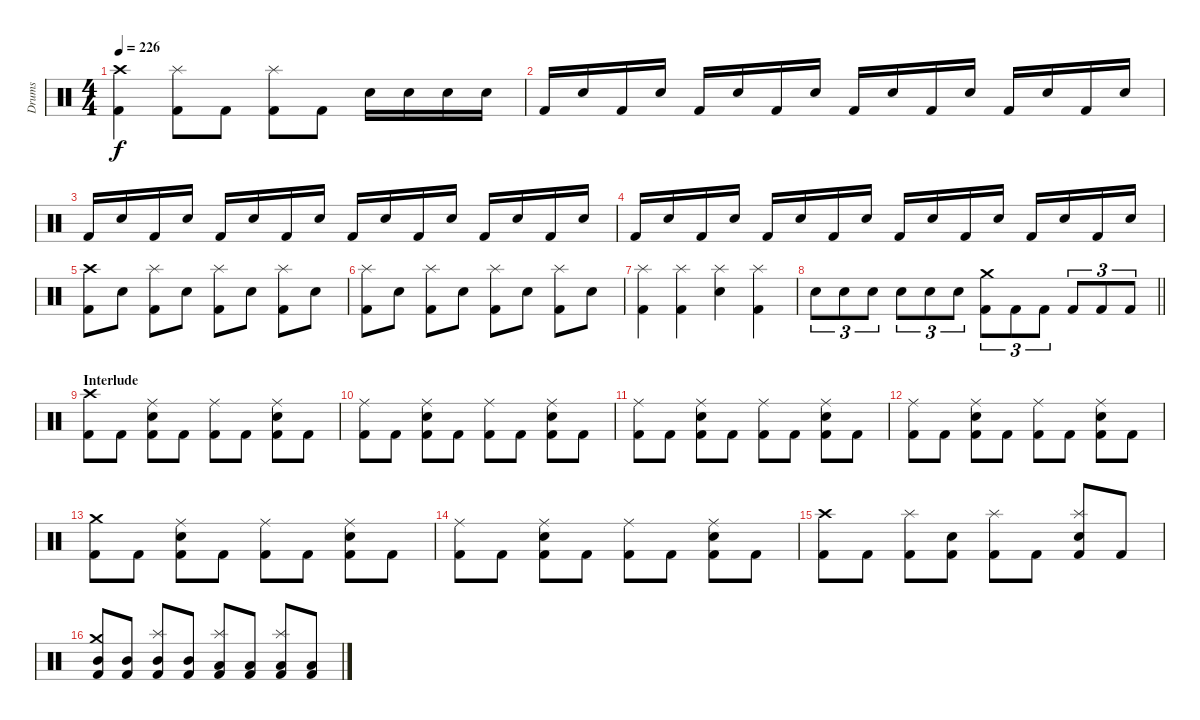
\track ("Drums" "Drums") {instrument percussion}
\staff {score}
\articulation defaults
\ts (4 4)
\tempo 226
\clef neutral
\ks c
("Crash high (hit)" "Kick (hit) 2").4{dy f} ("Splash (hit)" "Kick (hit) 2").8 "Kick (hit) 2".8 ("Splash (hit)" "Kick (hit) 2").8 "Kick (hit) 2".8 "Snare (hit) 2".16 "Snare (hit) 2".16 "Snare (hit) 2".16 "Snare (hit) 2".16 |
"Kick (hit) 2".16 "Snare (hit) 2".16 "Kick (hit) 2".16 "Snare (hit) 2".16 "Kick (hit) 2".16 "Snare (hit) 2".16 "Kick (hit) 2".16 "Snare (hit) 2".16 "Kick (hit) 2".16 "Snare (hit) 2".16 "Kick (hit) 2".16 "Snare (hit) 2".16 "Kick (hit) 2".16 "Snare (hit) 2".16 "Kick (hit) 2".16 "Snare (hit) 2".16 |
"Kick (hit) 2".16 "Snare (hit) 2".16 "Kick (hit) 2".16 "Snare (hit) 2".16 "Kick (hit) 2".16 "Snare (hit) 2".16 "Kick (hit) 2".16 "Snare (hit) 2".16 "Kick (hit) 2".16 "Snare (hit) 2".16 "Kick (hit) 2".16 "Snare (hit) 2".16 "Kick (hit) 2".16 "Snare (hit) 2".16 "Kick (hit) 2".16 "Snare (hit) 2".16 |
"Kick (hit) 2".16 "Snare (hit) 2".16 "Kick (hit) 2".16 "Snare (hit) 2".16 "Kick (hit) 2".16 "Snare (hit) 2".16 "Kick (hit) 2".16 "Snare (hit) 2".16 "Kick (hit) 2".16 "Snare (hit) 2".16 "Kick (hit) 2".16 "Snare (hit) 2".16 "Kick (hit) 2".16 "Snare (hit) 2".16 "Kick (hit) 2".16 "Snare (hit) 2".16 |
("Crash high (hit)" "Kick (hit) 2").8 "Snare (hit) 2".8 ("Splash (hit)" "Kick (hit) 2").8 "Snare (hit) 2".8 ("Splash (hit)" "Kick (hit) 2").8 "Snare (hit) 2".8 ("Splash (hit)" "Kick (hit) 2").8 "Snare (hit) 2".8 |
("Splash (hit)" "Kick (hit) 2").8 "Snare (hit) 2".8 ("Splash (hit)" "Kick (hit) 2").8 "Snare (hit) 2".8 ("Splash (hit)" "Kick (hit) 2").8 "Snare (hit) 2".8 ("Splash (hit)" "Kick (hit) 2").8 "Snare (hit) 2".8 |
("Splash (hit)" "Kick (hit) 2").4 ("Splash (hit)" "Kick (hit) 2").4 ("Splash (hit)" "Snare (hit) 2").4 ("Splash (hit)" "Kick (hit) 2").4 |
\barLineRight lightlight "Snare (hit) 2".8{tu (3 2)} "Snare (hit) 2".8{tu (3 2)} "Snare (hit) 2".8{tu (3 2)} "Snare (hit) 2".8{tu (3 2)} "Snare (hit) 2".8{tu (3 2)} "Snare (hit) 2".8{tu (3 2)}
("Crash medium (hit)" "Kick (hit) 2").8{tu (3 2)} "Kick (hit) 2".8{tu (3 2)} "Kick (hit) 2".8{tu (3 2)} "Kick (hit) 2".8{tu (3 2)} "Kick (hit) 2".8{tu (3 2)} "Kick (hit) 2".8{tu (3 2)} |
\section ("" "Interlude")
("Crash high (hit)" "Kick (hit) 2").8 "Kick (hit) 2".8 ("Ride (middle)" "Snare (hit) 2" "Kick (hit) 2").8 "Kick (hit) 2".8 ("Ride (middle)" "Kick (hit) 2").8 "Kick (hit) 2".8 ("Ride (middle)" "Snare (hit) 2" "Kick (hit) 2").8 "Kick (hit) 2".8 |
("Ride (middle)" "Kick (hit) 2").8 "Kick (hit) 2".8 ("Ride (middle)" "Snare (hit) 2" "Kick (hit) 2").8 "Kick (hit) 2".8 ("Ride (middle)" "Kick (hit) 2").8 "Kick (hit) 2".8 ("Ride (middle)" "Snare (hit) 2" "Kick (hit) 2").8 "Kick (hit) 2".8 |
("Ride (middle)" "Kick (hit) 2").8 "Kick (hit) 2".8 ("Ride (middle)" "Snare (hit) 2" "Kick (hit) 2").8 "Kick (hit) 2".8 ("Ride (middle)" "Kick (hit) 2").8 "Kick (hit) 2".8 ("Ride (middle)" "Snare (hit) 2" "Kick (hit) 2").8 "Kick (hit) 2".8 |
("Ride (middle)" "Kick (hit) 2").8 "Kick (hit) 2".8 ("Ride (middle)" "Snare (hit) 2" "Kick (hit) 2").8 "Kick (hit) 2".8 ("Ride (middle)" "Kick (hit) 2").8 "Kick (hit) 2".8 ("Ride (middle)" "Snare (hit) 2" "Kick (hit) 2").8 "Kick (hit) 2".8 |
("Crash medium (hit)" "Kick (hit) 2").8 "Kick (hit) 2".8 ("Ride (middle)" "Snare (hit) 2" "Kick (hit) 2").8 "Kick (hit) 2".8 ("Ride (middle)" "Kick (hit) 2").8 "Kick (hit) 2".8 ("Ride (middle)" "Snare (hit) 2" "Kick (hit) 2").8 "Kick (hit) 2".8 |
("Ride (middle)" "Kick (hit) 2").8 "Kick (hit) 2".8 ("Ride (middle)" "Snare (hit) 2" "Kick (hit) 2").8 "Kick (hit) 2".8 ("Ride (middle)" "Kick (hit) 2").8 "Kick (hit) 2".8 ("Ride (middle)" "Snare (hit) 2" "Kick (hit) 2").8 "Kick (hit) 2".8 |
("Crash high (hit)" "Kick (hit) 2").8 "Kick (hit) 2".8 ("Splash (hit)" "Kick (hit) 2").8 ("Snare (hit) 2" "Kick (hit) 2").8 ("Splash (hit)" "Kick (hit) 2").8 "Kick (hit) 2".8 ("Splash (hit)" "Snare (hit) 2" "Kick (hit) 2").8 "Kick (hit) 2".8 |
("Crash medium (hit)" "Mid Tom (hit)" "Kick (hit) 2").8 ("Mid Tom (hit)" "Kick (hit) 2").8 ("Splash (hit)" "Mid Tom (hit)" "Kick (hit) 2").8 ("Mid Tom (hit)" "Kick (hit) 2").8 ("Splash (hit)" "Low Tom (hit)" "Kick (hit) 2").8 ("Low Tom (hit)" "Kick (hit) 2").8 ("Splash (hit)" "Low Tom (hit)" "Kick (hit) 2").8 ("Low Tom (hit)" "Kick (hit) 2").8
